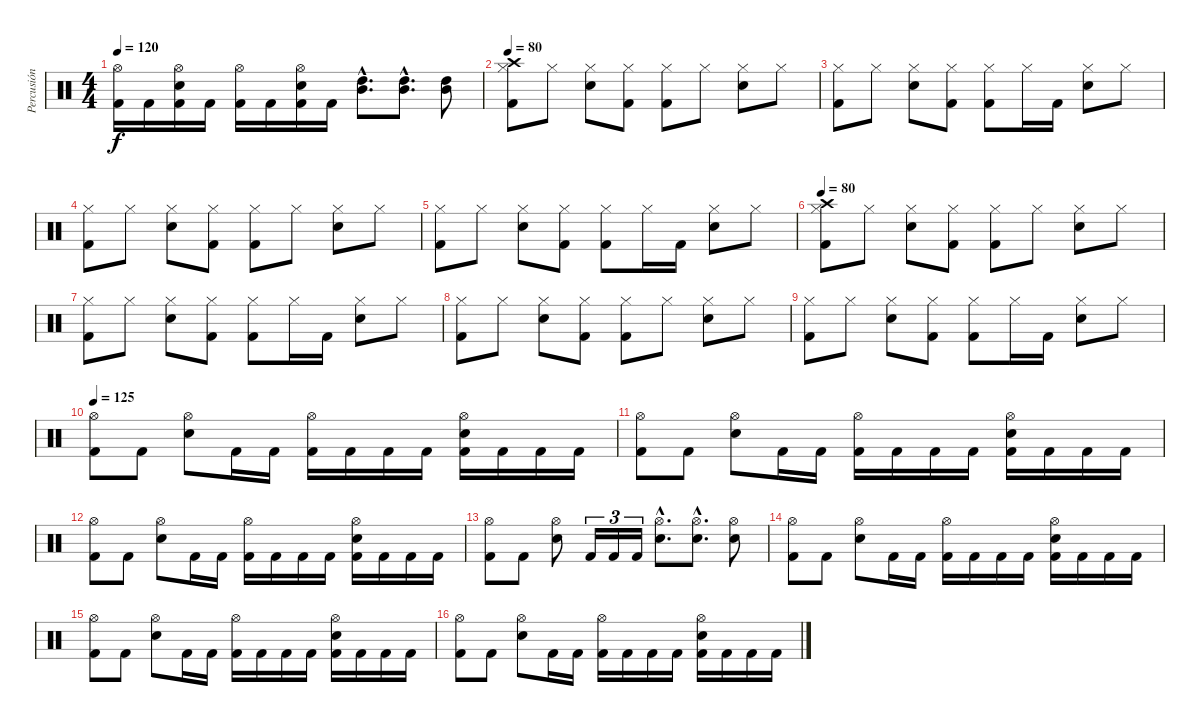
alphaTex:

\track ("Percusión" "Percusión") {instrument percussion}
\staff {score}
\articulation defaults
\ts (4 4)
\tempo 120
\clef neutral
\ks c
("Hi-Hat (open)" "Kick (hit) 2").16{dy f} "Kick (hit) 2".16 ("Hi-Hat (open)" "Electric Snare (hit)" "Kick (hit) 2").16 "Kick (hit) 2".16 ("Hi-Hat (open)" "Kick (hit) 2").16 "Kick (hit) 2".16 ("Hi-Hat (open)" "Electric Snare (hit)" "Kick (hit) 2").16 "Kick (hit) 2".16 ("High Tom (hit)"{hac} "Mid Tom (hit)"{hac}).8{d} ("High Tom (hit)"{hac} "Mid Tom (hit)"{hac}).8{d} ("High Tom (hit)" "Mid Tom (hit)").8 |
\tempo 80
("Crash high (hit)" "Hi-Hat (closed)" "Kick (hit) 2").8 "Hi-Hat (closed)".8 ("Hi-Hat (closed)" "Electric Snare (hit)").8 ("Hi-Hat (closed)" "Kick (hit) 2").8 ("Hi-Hat (closed)" "Kick (hit) 2").8 "Hi-Hat (closed)".8 ("Hi-Hat (closed)" "Electric Snare (hit)").8 "Hi-Hat (closed)".8 |
("Hi-Hat (closed)" "Kick (hit) 2").8 "Hi-Hat (closed)".8 ("Hi-Hat (closed)" "Electric Snare (hit)").8 ("Hi-Hat (closed)" "Kick (hit) 2").8 ("Hi-Hat (closed)" "Kick (hit) 2").8 "Hi-Hat (closed)".16 "Kick (hit) 2".16 ("Hi-Hat (closed)" "Electric Snare (hit)").8 "Hi-Hat (closed)".8 |
("Hi-Hat (closed)" "Kick (hit) 2").8 "Hi-Hat (closed)".8 ("Hi-Hat (closed)" "Electric Snare (hit)").8 ("Hi-Hat (closed)" "Kick (hit) 2").8 ("Hi-Hat (closed)" "Kick (hit) 2").8 "Hi-Hat (closed)".8 ("Hi-Hat (closed)" "Electric Snare (hit)").8 "Hi-Hat (closed)".8 |
("Hi-Hat (closed)" "Kick (hit) 2").8 "Hi-Hat (closed)".8 ("Hi-Hat (closed)" "Electric Snare (hit)").8 ("Hi-Hat (closed)" "Kick (hit) 2").8 ("Hi-Hat (closed)" "Kick (hit) 2").8 "Hi-Hat (closed)".16 "Kick (hit) 2".16 ("Hi-Hat (closed)" "Electric Snare (hit)").8 "Hi-Hat (closed)".8 |
\tempo 80
("Crash high (hit)" "Hi-Hat (closed)" "Kick (hit) 2").8 "Hi-Hat (closed)".8 ("Hi-Hat (closed)" "Electric Snare (hit)").8 ("Hi-Hat (closed)" "Kick (hit) 2").8 ("Hi-Hat (closed)" "Kick (hit) 2").8 "Hi-Hat (closed)".8 ("Hi-Hat (closed)" "Electric Snare (hit)").8 "Hi-Hat (closed)".8 |
("Hi-Hat (closed)" "Kick (hit) 2").8 "Hi-Hat (closed)".8 ("Hi-Hat (closed)" "Electric Snare (hit)").8 ("Hi-Hat (closed)" "Kick (hit) 2").8 ("Hi-Hat (closed)" "Kick (hit) 2").8 "Hi-Hat (closed)".16 "Kick (hit) 2".16 ("Hi-Hat (closed)" "Electric Snare (hit)").8 "Hi-Hat (closed)".8 |
("Hi-Hat (closed)" "Kick (hit) 2").8 "Hi-Hat (closed)".8 ("Hi-Hat (closed)" "Electric Snare (hit)").8 ("Hi-Hat (closed)" "Kick (hit) 2").8 ("Hi-Hat (closed)" "Kick (hit) 2").8 "Hi-Hat (closed)".8 ("Hi-Hat (closed)" "Electric Snare (hit)").8 "Hi-Hat (closed)".8 |
("Hi-Hat (closed)" "Kick (hit) 2").8 "Hi-Hat (closed)".8 ("Hi-Hat (closed)" "Electric Snare (hit)").8 ("Hi-Hat (closed)" "Kick (hit) 2").8 ("Hi-Hat (closed)" "Kick (hit) 2").8 "Hi-Hat (closed)".16 "Kick (hit) 2".16 ("Hi-Hat (closed)" "Electric Snare (hit)").8 "Hi-Hat (closed)".8 |
\tempo 125
("Hi-Hat (open)" "Kick (hit) 2").8 "Kick (hit) 2".8 ("Hi-Hat (open)" "Electric Snare (hit)").8 "Kick (hit) 2".16 "Kick (hit) 2".16 ("Hi-Hat (open)" "Kick (hit) 2").16 "Kick (hit) 2".16 "Kick (hit) 2".16 "Kick (hit) 2".16 ("Hi-Hat (open)" "Electric Snare (hit)" "Kick (hit) 2").16 "Kick (hit) 2".16 "Kick (hit) 2".16 "Kick (hit) 2".16 |
("Hi-Hat (open)" "Kick (hit) 2").8 "Kick (hit) 2".8 ("Hi-Hat (open)" "Electric Snare (hit)").8 "Kick (hit) 2".16 "Kick (hit) 2".16 ("Hi-Hat (open)" "Kick (hit) 2").16 "Kick (hit) 2".16 "Kick (hit) 2".16 "Kick (hit) 2".16 ("Hi-Hat (open)" "Electric Snare (hit)" "Kick (hit) 2").16 "Kick (hit) 2".16 "Kick (hit) 2".16 "Kick (hit) 2".16 |
("Hi-Hat (open)" "Kick (hit) 2").8 "Kick (hit) 2".8 ("Hi-Hat (open)" "Electric Snare (hit)").8 "Kick (hit) 2".16 "Kick (hit) 2".16 ("Hi-Hat (open)" "Kick (hit) 2").16 "Kick (hit) 2".16 "Kick (hit) 2".16 "Kick (hit) 2".16 ("Hi-Hat (open)" "Electric Snare (hit)" "Kick (hit) 2").16 "Kick (hit) 2".16 "Kick (hit) 2".16 "Kick (hit) 2".16 |
("Hi-Hat (open)" "Kick (hit) 2").8 "Kick (hit) 2".8 ("Hi-Hat (open)" "Electric Snare (hit)").8 "Kick (hit) 2".16{tu (3 2)} "Kick (hit) 2".16{tu (3 2)} "Kick (hit) 2".16{tu (3 2)} ("Hi-Hat (open)"{hac} "Electric Snare (hit)"{hac}).8{d} ("Hi-Hat (open)"{hac} "Electric Snare (hit)"{hac}).8{d} ("Hi-Hat (open)" "Electric Snare (hit)").8 |
("Hi-Hat (open)" "Kick (hit) 2").8 "Kick (hit) 2".8 ("Hi-Hat (open)" "Electric Snare (hit)").8 "Kick (hit) 2".16 "Kick (hit) 2".16 ("Hi-Hat (open)" "Kick (hit) 2").16 "Kick (hit) 2".16 "Kick (hit) 2".16 "Kick (hit) 2".16 ("Hi-Hat (open)" "Electric Snare (hit)" "Kick (hit) 2").16 "Kick (hit) 2".16 "Kick (hit) 2".16 "Kick (hit) 2".16 |
("Hi-Hat (open)" "Kick (hit) 2").8 "Kick (hit) 2".8 ("Hi-Hat (open)" "Electric Snare (hit)").8 "Kick (hit) 2".16 "Kick (hit) 2".16 ("Hi-Hat (open)" "Kick (hit) 2").16 "Kick (hit) 2".16 "Kick (hit) 2".16 "Kick (hit) 2".16 ("Hi-Hat (open)" "Electric Snare (hit)" "Kick (hit) 2").16 "Kick (hit) 2".16 "Kick (hit) 2".16 "Kick (hit) 2".16 |
("Hi-Hat (open)" "Kick (hit) 2").8 "Kick (hit) 2".8 ("Hi-Hat (open)" "Electric Snare (hit)").8 "Kick (hit) 2".16 "Kick (hit) 2".16 ("Hi-Hat (open)" "Kick (hit) 2").16 "Kick (hit) 2".16 "Kick (hit) 2".16 "Kick (hit) 2".16 ("Hi-Hat (open)" "Electric Snare (hit)" "Kick (hit) 2").16 "Kick (hit) 2".16 "Kick (hit) 2".16 "Kick (hit) 2".16
